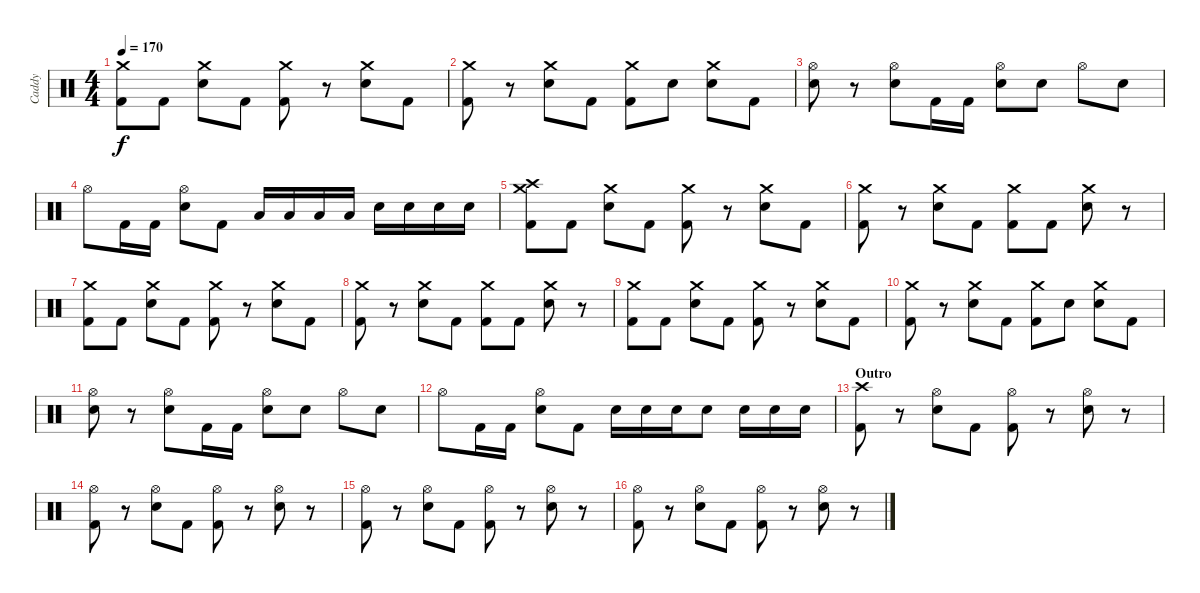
\track ("Caddy" "Caddy") {instrument percussion}
\staff {score}
\articulation defaults
\ts (4 4)
\tempo 170
\clef neutral
\ks c
("Crash medium (hit)" "Kick (hit) 2").8{dy f} "Kick (hit) 2".8 ("Crash medium (hit)" "Electric Snare (hit)").8 "Kick (hit) 2".8 ("Crash medium (hit)" "Kick (hit) 2").8 r.8 ("Crash medium (hit)" "Electric Snare (hit)").8 "Kick (hit) 2".8 |
("Crash medium (hit)" "Kick (hit) 2").8 r.8 ("Crash medium (hit)" "Electric Snare (hit)").8 "Kick (hit) 2".8 ("Crash medium (hit)" "Kick (hit) 2").8 "Electric Snare (hit)".8 ("Crash medium (hit)" "Electric Snare (hit)").8 "Kick (hit) 2".8 |
("Hi-Hat (open)" "Electric Snare (hit)").8 r.8 ("Hi-Hat (open)" "Electric Snare (hit)").8 "Kick (hit) 2".16 "Kick (hit) 2".16 ("Hi-Hat (open)" "Electric Snare (hit)").8 "Electric Snare (hit)".8 "Hi-Hat (open)".8 "Electric Snare (hit)".8 |
"Hi-Hat (open)".8 "Kick (hit) 2".16 "Kick (hit) 2".16 ("Hi-Hat (open)" "Electric Snare (hit)").8 "Kick (hit) 2".8 "Low Tom (hit)".16 "Low Tom (hit)".16 "Low Tom (hit)".16 "Low Tom (hit)".16 "Electric Snare (hit)".16 "Electric Snare (hit)".16 "Electric Snare (hit)".16 "Electric Snare (hit)".16 |
("Crash high (hit)" "Crash medium (hit)" "Kick (hit) 2").8 "Kick (hit) 2".8 ("Crash medium (hit)" "Electric Snare (hit)").8 "Kick (hit) 2".8 ("Crash medium (hit)" "Kick (hit) 2").8 r.8 ("Crash medium (hit)" "Electric Snare (hit)").8 "Kick (hit) 2".8 |
("Crash medium (hit)" "Kick (hit) 2").8 r.8 ("Crash medium (hit)" "Electric Snare (hit)").8 "Kick (hit) 2".8 ("Crash medium (hit)" "Kick (hit) 2").8 "Kick (hit) 2".8 ("Crash medium (hit)" "Electric Snare (hit)").8 r.8 |
("Crash medium (hit)" "Kick (hit) 2").8 "Kick (hit) 2".8 ("Crash medium (hit)" "Electric Snare (hit)").8 "Kick (hit) 2".8 ("Crash medium (hit)" "Kick (hit) 2").8 r.8 ("Crash medium (hit)" "Electric Snare (hit)").8 "Kick (hit) 2".8 |
("Crash medium (hit)" "Kick (hit) 2").8 r.8 ("Crash medium (hit)" "Electric Snare (hit)").8 "Kick (hit) 2".8 ("Crash medium (hit)" "Kick (hit) 2").8 "Kick (hit) 2".8 ("Crash medium (hit)" "Electric Snare (hit)").8 r.8 |
("Crash medium (hit)" "Kick (hit) 2").8 "Kick (hit) 2".8 ("Crash medium (hit)" "Electric Snare (hit)").8 "Kick (hit) 2".8 ("Crash medium (hit)" "Kick (hit) 2").8 r.8 ("Crash medium (hit)" "Electric Snare (hit)").8 "Kick (hit) 2".8 |
("Crash medium (hit)" "Kick (hit) 2").8 r.8 ("Crash medium (hit)" "Electric Snare (hit)").8 "Kick (hit) 2".8 ("Crash medium (hit)" "Kick (hit) 2").8 "Electric Snare (hit)".8 ("Crash medium (hit)" "Electric Snare (hit)").8 "Kick (hit) 2".8 |
("Hi-Hat (open)" "Electric Snare (hit)").8 r.8 ("Hi-Hat (open)" "Electric Snare (hit)").8 "Kick (hit) 2".16 "Kick (hit) 2".16 ("Hi-Hat (open)" "Electric Snare (hit)").8 "Electric Snare (hit)".8 "Hi-Hat (open)".8 "Electric Snare (hit)".8 |
"Hi-Hat (open)".8 "Kick (hit) 2".16 "Kick (hit) 2".16 ("Hi-Hat (open)" "Electric Snare (hit)").8 "Kick (hit) 2".8 "Electric Snare (hit)".16 "Electric Snare (hit)".16 "Electric Snare (hit)".16 "Electric Snare (hit)".8 "Electric Snare (hit)".16 "Electric Snare (hit)".16 "Electric Snare (hit)".16 |
\section ("" "Outro")
("Crash high (hit)" "Kick (hit) 2").8 r.8 ("Hi-Hat (open)" "Electric Snare (hit)").8 "Kick (hit) 2".8 ("Hi-Hat (open)" "Kick (hit) 2").8 r.8 ("Hi-Hat (open)" "Electric Snare (hit)").8 r.8 |
("Hi-Hat (open)" "Kick (hit) 2").8 r.8 ("Hi-Hat (open)" "Electric Snare (hit)").8 "Kick (hit) 2".8 ("Hi-Hat (open)" "Kick (hit) 2").8 r.8 ("Hi-Hat (open)" "Electric Snare (hit)").8 r.8 |
("Hi-Hat (open)" "Kick (hit) 2").8 r.8 ("Hi-Hat (open)" "Electric Snare (hit)").8 "Kick (hit) 2".8 ("Hi-Hat (open)" "Kick (hit) 2").8 r.8 ("Hi-Hat (open)" "Electric Snare (hit)").8 r.8 |
("Hi-Hat (open)" "Kick (hit) 2").8 r.8 ("Hi-Hat (open)" "Electric Snare (hit)").8 "Kick (hit) 2".8 ("Hi-Hat (open)" "Kick (hit) 2").8 r.8 ("Hi-Hat (open)" "Electric Snare (hit)").8 r.8
